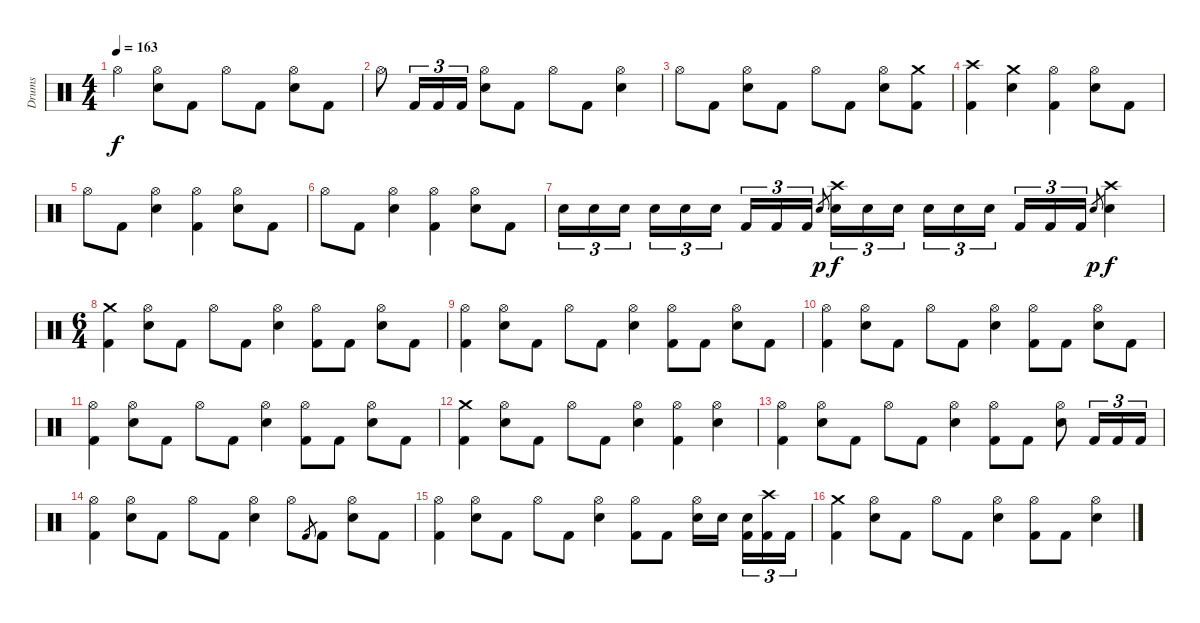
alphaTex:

\track ("Drums" "Drums") {instrument percussion}
\staff {score}
\articulation defaults
\ts (4 4)
\tempo 163
\clef neutral
\ks c "Hi-Hat (open)".4{dy f}
("Hi-Hat (open)" "Electric Snare (hit)").8 "Kick (hit) 2".8 "Hi-Hat (open)".8 "Kick (hit) 2".8 ("Hi-Hat (open)" "Electric Snare (hit)").8 "Kick (hit) 2".8 |
"Hi-Hat (open)".8 "Kick (hit) 2".16{tu (3 2)} "Kick (hit) 2".16{tu (3 2)} "Kick (hit) 2".16{tu (3 2)} ("Hi-Hat (open)" "Electric Snare (hit)").8 "Kick (hit) 2".8 "Hi-Hat (open)".8 "Kick (hit) 2".8 ("Hi-Hat (open)" "Electric Snare (hit)").4 |
"Hi-Hat (open)".8 "Kick (hit) 2".8 ("Hi-Hat (open)" "Electric Snare (hit)").8 "Kick (hit) 2".8 "Hi-Hat (open)".8 "Kick (hit) 2".8 ("Hi-Hat (open)" "Electric Snare (hit)").8 ("Crash medium (hit)" "Kick (hit) 2").8 |
("Crash high (hit)" "Kick (hit) 2").4 ("Crash medium (hit)" "Electric Snare (hit)").4 ("Hi-Hat (open)" "Kick (hit) 2").4 ("Hi-Hat (open)" "Electric Snare (hit)").8 "Kick (hit) 2".8 |
"Hi-Hat (open)".8 "Kick (hit) 2".8 ("Hi-Hat (open)" "Electric Snare (hit)").4 ("Hi-Hat (open)" "Kick (hit) 2").4 ("Hi-Hat (open)" "Electric Snare (hit)").8 "Kick (hit) 2".8 |
"Hi-Hat (open)".8 "Kick (hit) 2".8 ("Hi-Hat (open)" "Electric Snare (hit)").4 ("Hi-Hat (open)" "Kick (hit) 2").4 ("Hi-Hat (open)" "Electric Snare (hit)").8 "Kick (hit) 2".8 |
"Electric Snare (hit)".16{tu (3 2)} "Electric Snare (hit)".16{tu (3 2)} "Electric Snare (hit)".16{tu (3 2)} "Electric Snare (hit)".16{tu (3 2)} "Electric Snare (hit)".16{tu (3 2)} "Electric Snare (hit)".16{tu (3 2)} "Kick (hit) 2".16{tu (3 2)} "Kick (hit) 2".16{tu (3 2)} "Kick (hit) 2".16{tu (3 2)} "Electric Snare (hit)".8{gr dy p} ("Crash high (hit)" "Electric Snare (hit)").16{tu (3 2) dy f} "Electric Snare (hit)".16{tu (3 2)} "Electric Snare (hit)".16{tu (3 2)} "Electric Snare (hit)".16{tu (3 2)} "Electric Snare (hit)".16{tu (3 2)} "Electric Snare (hit)".16{tu (3 2)} "Kick (hit) 2".16{tu (3 2)} "Kick (hit) 2".16{tu (3 2)} "Kick (hit) 2".16{tu (3 2)} "Electric Snare (hit)".8{gr dy p} ("Crash high (hit)" "Electric Snare (hit)").4{dy f} |
\ts (6 4)
("Crash medium (hit)" "Kick (hit) 2").4 ("Hi-Hat (open)" "Electric Snare (hit)").8 "Kick (hit) 2".8 "Hi-Hat (open)".8 "Kick (hit) 2".8 ("Hi-Hat (open)" "Electric Snare (hit)").4 ("Hi-Hat (open)" "Kick (hit) 2").8 "Kick (hit) 2".8 ("Hi-Hat (open)" "Electric Snare (hit)").8 "Kick (hit) 2".8 |
("Hi-Hat (open)" "Kick (hit) 2").4 ("Hi-Hat (open)" "Electric Snare (hit)").8 "Kick (hit) 2".8 "Hi-Hat (open)".8 "Kick (hit) 2".8 ("Hi-Hat (open)" "Electric Snare (hit)").4 ("Hi-Hat (open)" "Kick (hit) 2").8 "Kick (hit) 2".8 ("Hi-Hat (open)" "Electric Snare (hit)").8 "Kick (hit) 2".8 |
("Hi-Hat (open)" "Kick (hit) 2").4 ("Hi-Hat (open)" "Electric Snare (hit)").8 "Kick (hit) 2".8 "Hi-Hat (open)".8 "Kick (hit) 2".8 ("Hi-Hat (open)" "Electric Snare (hit)").4 ("Hi-Hat (open)" "Kick (hit) 2").8 "Kick (hit) 2".8 ("Hi-Hat (open)" "Electric Snare (hit)").8 "Kick (hit) 2".8 |
("Hi-Hat (open)" "Kick (hit) 2").4 ("Hi-Hat (open)" "Electric Snare (hit)").8 "Kick (hit) 2".8 "Hi-Hat (open)".8 "Kick (hit) 2".8 ("Hi-Hat (open)" "Electric Snare (hit)").4 ("Hi-Hat (open)" "Kick (hit) 2").8 "Kick (hit) 2".8 ("Hi-Hat (open)" "Electric Snare (hit)").8 "Kick (hit) 2".8 |
("Crash medium (hit)" "Kick (hit) 2").4 ("Hi-Hat (open)" "Electric Snare (hit)").8 "Kick (hit) 2".8 "Hi-Hat (open)".8 "Kick (hit) 2".8 ("Hi-Hat (open)" "Electric Snare (hit)").4 ("Hi-Hat (open)" "Kick (hit) 2").4 ("Hi-Hat (open)" "Electric Snare (hit)").4 |
("Hi-Hat (open)" "Kick (hit) 2").4 ("Hi-Hat (open)" "Electric Snare (hit)").8 "Kick (hit) 2".8 "Hi-Hat (open)".8 "Kick (hit) 2".8 ("Hi-Hat (open)" "Electric Snare (hit)").4 ("Hi-Hat (open)" "Kick (hit) 2").8 "Kick (hit) 2".8 ("Hi-Hat (open)" "Electric Snare (hit)").8 "Kick (hit) 2".16{tu (3 2)} "Kick (hit) 2".16{tu (3 2)} "Kick (hit) 2".16{tu (3 2)} |
("Hi-Hat (open)" "Kick (hit) 2").4 ("Hi-Hat (open)" "Electric Snare (hit)").8 "Kick (hit) 2".8 "Hi-Hat (open)".8 "Kick (hit) 2".8 ("Hi-Hat (open)" "Electric Snare (hit)").4 "Hi-Hat (open)".8 "Kick (hit) 2".8{gr} "Kick (hit) 2".8 ("Hi-Hat (open)" "Electric Snare (hit)").8 "Kick (hit) 2".8 |
("Hi-Hat (open)" "Kick (hit) 2").4 ("Hi-Hat (open)" "Electric Snare (hit)").8 "Kick (hit) 2".8 "Hi-Hat (open)".8 "Kick (hit) 2".8 ("Hi-Hat (open)" "Electric Snare (hit)").4 ("Hi-Hat (open)" "Kick (hit) 2").8 "Kick (hit) 2".8 ("Hi-Hat (open)" "Electric Snare (hit)").16 "Electric Snare (hit)".16 ("Electric Snare (hit)" "Kick (hit) 2").16{tu (3 2)} ("Crash high (hit)" "Kick (hit) 2").16{tu (3 2)} "Kick (hit) 2".16{tu (3 2)} |
("Crash medium (hit)" "Kick (hit) 2").4 ("Hi-Hat (open)" "Electric Snare (hit)").8 "Kick (hit) 2".8 "Hi-Hat (open)".8 "Kick (hit) 2".8 ("Hi-Hat (open)" "Electric Snare (hit)").4 ("Hi-Hat (open)" "Kick (hit) 2").8 "Kick (hit) 2".8 ("Hi-Hat (open)" "Electric Snare (hit)").4
